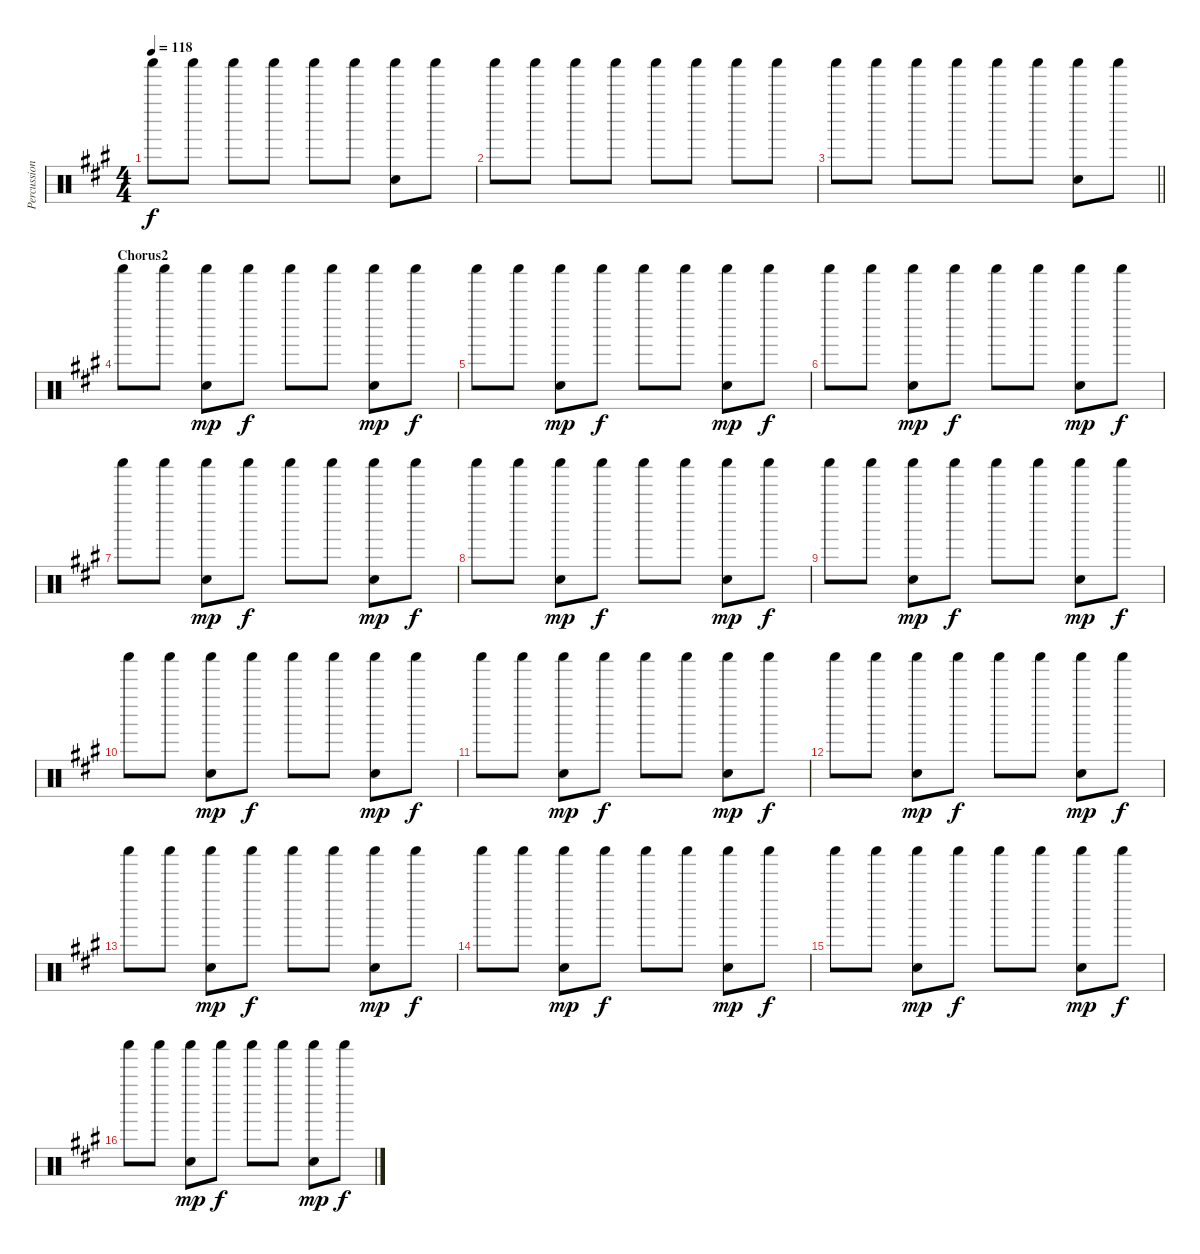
\track ("Percussions" "Percussion") {instrument percussion}
\staff {score}
\articulation defaults
\ts (4 4)
\tempo 118
\clef neutral
\ks f#minor "Shaker (hit)".8{dy f} "Shaker (hit)".8 "Shaker (hit)".8 "Shaker (hit)".8 "Shaker (hit)".8 "Shaker (hit)".8
("Shaker (hit)" "Hand Clap (hit)").8 "Shaker (hit)".8 |
"Shaker (hit)".8 "Shaker (hit)".8 "Shaker (hit)".8 "Shaker (hit)".8 "Shaker (hit)".8 "Shaker (hit)".8 "Shaker (hit)".8 "Shaker (hit)".8 |
\barLineRight lightlight "Shaker (hit)".8 "Shaker (hit)".8 "Shaker (hit)".8 "Shaker (hit)".8 "Shaker (hit)".8 "Shaker (hit)".8
("Shaker (hit)" "Hand Clap (hit)").8 "Shaker (hit)".8 |
\section ("" "Chorus2")
"Shaker (hit)".8 "Shaker (hit)".8 ("Shaker (hit)" "Hand Clap (hit)").8{dy mp} "Shaker (hit)".8{dy f} "Shaker (hit)".8 "Shaker (hit)".8 ("Shaker (hit)" "Hand Clap (hit)").8{dy mp} "Shaker (hit)".8{dy f} |
"Shaker (hit)".8 "Shaker (hit)".8 ("Shaker (hit)" "Hand Clap (hit)").8{dy mp} "Shaker (hit)".8{dy f} "Shaker (hit)".8 "Shaker (hit)".8 ("Shaker (hit)" "Hand Clap (hit)").8{dy mp} "Shaker (hit)".8{dy f} |
"Shaker (hit)".8 "Shaker (hit)".8 ("Shaker (hit)" "Hand Clap (hit)").8{dy mp} "Shaker (hit)".8{dy f} "Shaker (hit)".8 "Shaker (hit)".8 ("Shaker (hit)" "Hand Clap (hit)").8{dy mp} "Shaker (hit)".8{dy f} |
"Shaker (hit)".8 "Shaker (hit)".8 ("Shaker (hit)" "Hand Clap (hit)").8{dy mp} "Shaker (hit)".8{dy f} "Shaker (hit)".8 "Shaker (hit)".8 ("Shaker (hit)" "Hand Clap (hit)").8{dy mp} "Shaker (hit)".8{dy f} |
"Shaker (hit)".8 "Shaker (hit)".8 ("Shaker (hit)" "Hand Clap (hit)").8{dy mp} "Shaker (hit)".8{dy f} "Shaker (hit)".8 "Shaker (hit)".8 ("Shaker (hit)" "Hand Clap (hit)").8{dy mp} "Shaker (hit)".8{dy f} |
"Shaker (hit)".8 "Shaker (hit)".8 ("Shaker (hit)" "Hand Clap (hit)").8{dy mp} "Shaker (hit)".8{dy f} "Shaker (hit)".8 "Shaker (hit)".8 ("Shaker (hit)" "Hand Clap (hit)").8{dy mp} "Shaker (hit)".8{dy f} |
"Shaker (hit)".8 "Shaker (hit)".8 ("Shaker (hit)" "Hand Clap (hit)").8{dy mp} "Shaker (hit)".8{dy f} "Shaker (hit)".8 "Shaker (hit)".8 ("Shaker (hit)" "Hand Clap (hit)").8{dy mp} "Shaker (hit)".8{dy f} |
"Shaker (hit)".8 "Shaker (hit)".8 ("Shaker (hit)" "Hand Clap (hit)").8{dy mp} "Shaker (hit)".8{dy f} "Shaker (hit)".8 "Shaker (hit)".8 ("Shaker (hit)" "Hand Clap (hit)").8{dy mp} "Shaker (hit)".8{dy f} |
"Shaker (hit)".8 "Shaker (hit)".8 ("Shaker (hit)" "Hand Clap (hit)").8{dy mp} "Shaker (hit)".8{dy f} "Shaker (hit)".8 "Shaker (hit)".8 ("Shaker (hit)" "Hand Clap (hit)").8{dy mp} "Shaker (hit)".8{dy f} |
"Shaker (hit)".8 "Shaker (hit)".8 ("Shaker (hit)" "Hand Clap (hit)").8{dy mp} "Shaker (hit)".8{dy f} "Shaker (hit)".8 "Shaker (hit)".8 ("Shaker (hit)" "Hand Clap (hit)").8{dy mp} "Shaker (hit)".8{dy f} |
"Shaker (hit)".8 "Shaker (hit)".8 ("Shaker (hit)" "Hand Clap (hit)").8{dy mp} "Shaker (hit)".8{dy f} "Shaker (hit)".8 "Shaker (hit)".8 ("Shaker (hit)" "Hand Clap (hit)").8{dy mp} "Shaker (hit)".8{dy f} |
"Shaker (hit)".8 "Shaker (hit)".8 ("Shaker (hit)" "Hand Clap (hit)").8{dy mp} "Shaker (hit)".8{dy f} "Shaker (hit)".8 "Shaker (hit)".8 ("Shaker (hit)" "Hand Clap (hit)").8{dy mp} "Shaker (hit)".8{dy f} |
"Shaker (hit)".8 "Shaker (hit)".8 ("Shaker (hit)" "Hand Clap (hit)").8{dy mp} "Shaker (hit)".8{dy f} "Shaker (hit)".8 "Shaker (hit)".8 ("Shaker (hit)" "Hand Clap (hit)").8{dy mp} "Shaker (hit)".8{dy f}
